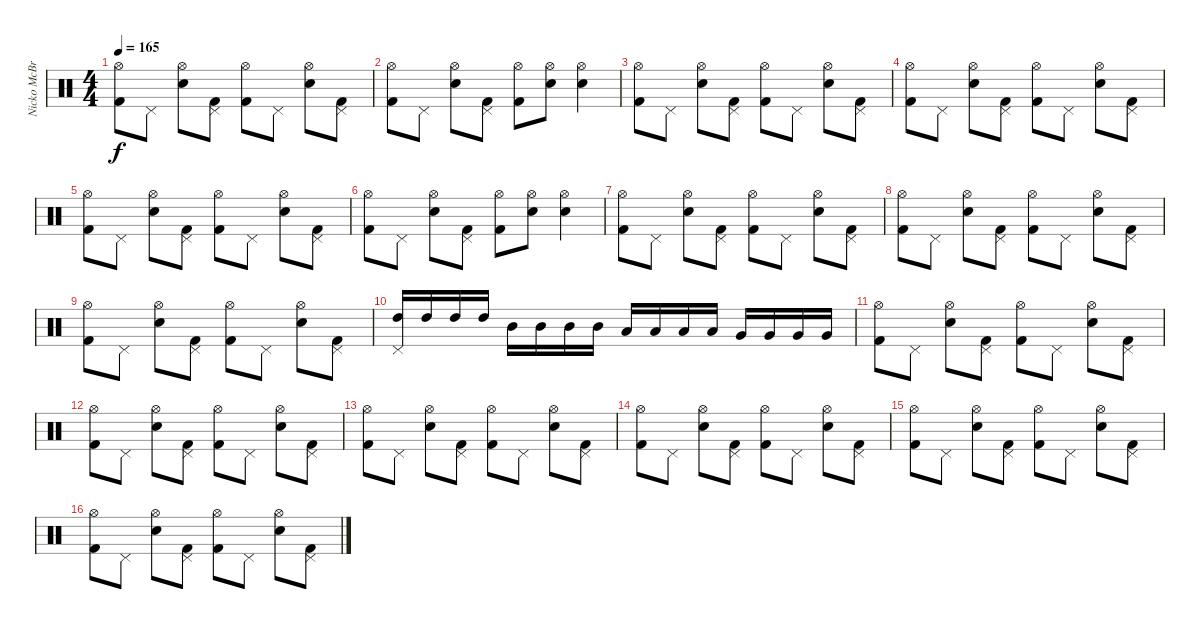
\track ("Nicko McBrain" "Nicko McBr") {instrument percussion}
\staff {score}
\articulation defaults
\ts (4 4)
\tempo 165
\clef neutral
\ks c
("Kick (hit) 2" "Hi-Hat (open)").8{dy f} "Pedal Hi-Hat (hit)".8 ("Snare (hit) 2" "Hi-Hat (open)").8 ("Kick (hit) 2" "Pedal Hi-Hat (hit)").8 ("Kick (hit) 2" "Hi-Hat (open)").8 "Pedal Hi-Hat (hit)".8 ("Snare (hit) 2" "Hi-Hat (open)").8 ("Kick (hit) 2" "Pedal Hi-Hat (hit)").8 |
("Kick (hit) 2" "Hi-Hat (open)").8 "Pedal Hi-Hat (hit)".8 ("Snare (hit) 2" "Hi-Hat (open)").8 ("Kick (hit) 2" "Pedal Hi-Hat (hit)").8 ("Kick (hit) 2" "Hi-Hat (open)").8 ("Snare (hit) 2" "Hi-Hat (open)").8 ("Snare (hit) 2" "Hi-Hat (open)").4 |
("Kick (hit) 2" "Hi-Hat (open)").8 "Pedal Hi-Hat (hit)".8 ("Snare (hit) 2" "Hi-Hat (open)").8 ("Kick (hit) 2" "Pedal Hi-Hat (hit)").8 ("Kick (hit) 2" "Hi-Hat (open)").8 "Pedal Hi-Hat (hit)".8 ("Snare (hit) 2" "Hi-Hat (open)").8 ("Kick (hit) 2" "Pedal Hi-Hat (hit)").8 |
("Kick (hit) 2" "Hi-Hat (open)").8 "Pedal Hi-Hat (hit)".8 ("Snare (hit) 2" "Hi-Hat (open)").8 ("Kick (hit) 2" "Pedal Hi-Hat (hit)").8 ("Kick (hit) 2" "Hi-Hat (open)").8 "Pedal Hi-Hat (hit)".8 ("Snare (hit) 2" "Hi-Hat (open)").8 ("Kick (hit) 2" "Pedal Hi-Hat (hit)").8 |
("Kick (hit) 2" "Hi-Hat (open)").8 "Pedal Hi-Hat (hit)".8 ("Snare (hit) 2" "Hi-Hat (open)").8 ("Kick (hit) 2" "Pedal Hi-Hat (hit)").8 ("Kick (hit) 2" "Hi-Hat (open)").8 "Pedal Hi-Hat (hit)".8 ("Snare (hit) 2" "Hi-Hat (open)").8 ("Kick (hit) 2" "Pedal Hi-Hat (hit)").8 |
("Kick (hit) 2" "Hi-Hat (open)").8 "Pedal Hi-Hat (hit)".8 ("Snare (hit) 2" "Hi-Hat (open)").8 ("Kick (hit) 2" "Pedal Hi-Hat (hit)").8 ("Kick (hit) 2" "Hi-Hat (open)").8 ("Snare (hit) 2" "Hi-Hat (open)").8 ("Snare (hit) 2" "Hi-Hat (open)").4 |
("Kick (hit) 2" "Hi-Hat (open)").8 "Pedal Hi-Hat (hit)".8 ("Snare (hit) 2" "Hi-Hat (open)").8 ("Kick (hit) 2" "Pedal Hi-Hat (hit)").8 ("Kick (hit) 2" "Hi-Hat (open)").8 "Pedal Hi-Hat (hit)".8 ("Snare (hit) 2" "Hi-Hat (open)").8 ("Kick (hit) 2" "Pedal Hi-Hat (hit)").8 |
("Kick (hit) 2" "Hi-Hat (open)").8 "Pedal Hi-Hat (hit)".8 ("Snare (hit) 2" "Hi-Hat (open)").8 ("Kick (hit) 2" "Pedal Hi-Hat (hit)").8 ("Kick (hit) 2" "Hi-Hat (open)").8 "Pedal Hi-Hat (hit)".8 ("Snare (hit) 2" "Hi-Hat (open)").8 ("Kick (hit) 2" "Pedal Hi-Hat (hit)").8 |
("Kick (hit) 2" "Hi-Hat (open)").8 "Pedal Hi-Hat (hit)".8 ("Snare (hit) 2" "Hi-Hat (open)").8 ("Kick (hit) 2" "Pedal Hi-Hat (hit)").8 ("Kick (hit) 2" "Hi-Hat (open)").8 "Pedal Hi-Hat (hit)".8 ("Snare (hit) 2" "Hi-Hat (open)").8 ("Kick (hit) 2" "Pedal Hi-Hat (hit)").8 |
("High Tom (hit)" "Pedal Hi-Hat (hit)").16 "High Tom (hit)".16 "High Tom (hit)".16 "High Tom (hit)".16 "Mid Tom (hit)".16 "Mid Tom (hit)".16 "Mid Tom (hit)".16 "Mid Tom (hit)".16 "Low Tom (hit)".16 "Low Tom (hit)".16 "Low Tom (hit)".16 "Low Tom (hit)".16 "Very Low Tom (hit)".16 "Very Low Tom (hit)".16 "Very Low Tom (hit)".16 "Very Low Tom (hit)".16 |
("Kick (hit) 2" "Hi-Hat (open)").8 "Pedal Hi-Hat (hit)".8 ("Snare (hit) 2" "Hi-Hat (open)").8 ("Kick (hit) 2" "Pedal Hi-Hat (hit)").8 ("Kick (hit) 2" "Hi-Hat (open)").8 "Pedal Hi-Hat (hit)".8 ("Snare (hit) 2" "Hi-Hat (open)").8 ("Kick (hit) 2" "Pedal Hi-Hat (hit)").8 |
("Kick (hit) 2" "Hi-Hat (open)").8 "Pedal Hi-Hat (hit)".8 ("Snare (hit) 2" "Hi-Hat (open)").8 ("Kick (hit) 2" "Pedal Hi-Hat (hit)").8 ("Kick (hit) 2" "Hi-Hat (open)").8 "Pedal Hi-Hat (hit)".8 ("Snare (hit) 2" "Hi-Hat (open)").8 ("Kick (hit) 2" "Pedal Hi-Hat (hit)").8 |
("Kick (hit) 2" "Hi-Hat (open)").8 "Pedal Hi-Hat (hit)".8 ("Snare (hit) 2" "Hi-Hat (open)").8 ("Kick (hit) 2" "Pedal Hi-Hat (hit)").8 ("Kick (hit) 2" "Hi-Hat (open)").8 "Pedal Hi-Hat (hit)".8 ("Snare (hit) 2" "Hi-Hat (open)").8 ("Kick (hit) 2" "Pedal Hi-Hat (hit)").8 |
("Kick (hit) 2" "Hi-Hat (open)").8 "Pedal Hi-Hat (hit)".8 ("Snare (hit) 2" "Hi-Hat (open)").8 ("Kick (hit) 2" "Pedal Hi-Hat (hit)").8 ("Kick (hit) 2" "Hi-Hat (open)").8 "Pedal Hi-Hat (hit)".8 ("Snare (hit) 2" "Hi-Hat (open)").8 ("Kick (hit) 2" "Pedal Hi-Hat (hit)").8 |
("Kick (hit) 2" "Hi-Hat (open)").8 "Pedal Hi-Hat (hit)".8 ("Snare (hit) 2" "Hi-Hat (open)").8 ("Kick (hit) 2" "Pedal Hi-Hat (hit)").8 ("Kick (hit) 2" "Hi-Hat (open)").8 "Pedal Hi-Hat (hit)".8 ("Snare (hit) 2" "Hi-Hat (open)").8 ("Kick (hit) 2" "Pedal Hi-Hat (hit)").8 |
("Kick (hit) 2" "Hi-Hat (open)").8 "Pedal Hi-Hat (hit)".8 ("Snare (hit) 2" "Hi-Hat (open)").8 ("Kick (hit) 2" "Pedal Hi-Hat (hit)").8 ("Kick (hit) 2" "Hi-Hat (open)").8 "Pedal Hi-Hat (hit)".8 ("Snare (hit) 2" "Hi-Hat (open)").8 ("Kick (hit) 2" "Pedal Hi-Hat (hit)").8
